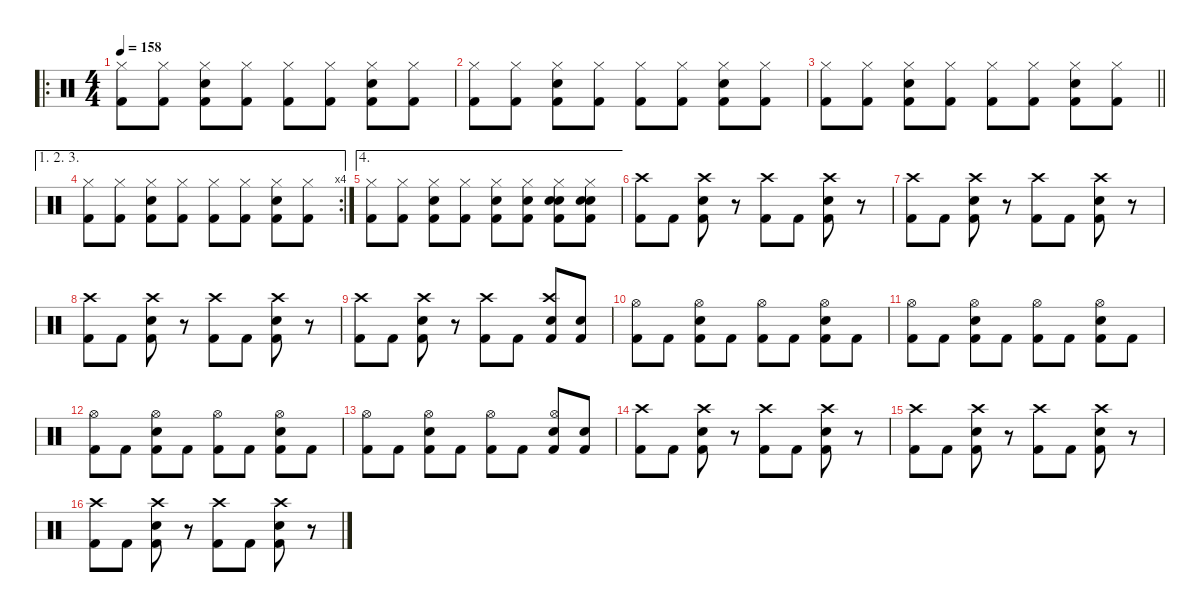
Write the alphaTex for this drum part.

\defaultSystemsLayout 4
\hideDynamics
\bracketExtendMode nobrackets
\singleTrackTrackNamePolicy hidden
\multiTrackTrackNamePolicy hidden
\firstSystemTrackNameMode fullname
\firstSystemTrackNameOrientation horizontal
\otherSystemsTrackNameOrientation horizontal
\track ("Drums" "drm.") {instrument percussion}
\staff {score}
\articulation defaults
\ro
\ts (4 4)
\tempo 158
\clef neutral
\ks c
("Hi-Hat (closed)" "Kick (hit) 2").8{dy f beam Down} ("Hi-Hat (closed)" "Kick (hit) 2").8{beam Down} ("Hi-Hat (closed)" "Snare (hit) 2" "Kick (hit) 2").8{beam Down} ("Hi-Hat (closed)" "Kick (hit) 2").8{beam Down} ("Hi-Hat (closed)" "Kick (hit) 2").8{beam Down} ("Hi-Hat (closed)" "Kick (hit) 2").8{beam Down} ("Hi-Hat (closed)" "Kick (hit) 2" "Snare (hit) 2").8{beam Down} ("Hi-Hat (closed)" "Kick (hit) 2").8{beam Down} |
("Hi-Hat (closed)" "Kick (hit) 2").8{beam Down} ("Hi-Hat (closed)" "Kick (hit) 2").8{beam Down} ("Hi-Hat (closed)" "Snare (hit) 2" "Kick (hit) 2").8{beam Down} ("Hi-Hat (closed)" "Kick (hit) 2").8{beam Down} ("Hi-Hat (closed)" "Kick (hit) 2").8{beam Down} ("Hi-Hat (closed)" "Kick (hit) 2").8{beam Down} ("Hi-Hat (closed)" "Kick (hit) 2" "Snare (hit) 2").8{beam Down} ("Hi-Hat (closed)" "Kick (hit) 2").8{beam Down} |
\barLineRight lightlight
("Hi-Hat (closed)" "Kick (hit) 2").8{beam Down} ("Hi-Hat (closed)" "Kick (hit) 2").8{beam Down} ("Hi-Hat (closed)" "Snare (hit) 2" "Kick (hit) 2").8{beam Down} ("Hi-Hat (closed)" "Kick (hit) 2").8{beam Down} ("Hi-Hat (closed)" "Kick (hit) 2").8{beam Down} ("Hi-Hat (closed)" "Kick (hit) 2").8{beam Down} ("Hi-Hat (closed)" "Kick (hit) 2" "Snare (hit) 2").8{beam Down} ("Hi-Hat (closed)" "Kick (hit) 2").8{beam Down} |
\ae (1 2 3)
\rc 4
("Hi-Hat (closed)" "Kick (hit) 2").8{beam Down} ("Hi-Hat (closed)" "Kick (hit) 2").8{beam Down} ("Hi-Hat (closed)" "Snare (hit) 2" "Kick (hit) 2").8{beam Down} ("Hi-Hat (closed)" "Kick (hit) 2").8{beam Down} ("Hi-Hat (closed)" "Kick (hit) 2").8{beam Down} ("Hi-Hat (closed)" "Kick (hit) 2").8{beam Down} ("Hi-Hat (closed)" "Kick (hit) 2" "Snare (hit) 2").8{beam Down} ("Hi-Hat (closed)" "Kick (hit) 2").8{beam Down} |
\ae 4
("Hi-Hat (closed)" "Kick (hit) 2").8{beam Down} ("Hi-Hat (closed)" "Kick (hit) 2").8{beam Down} ("Hi-Hat (closed)" "Snare (hit) 2" "Kick (hit) 2").8{beam Down} ("Hi-Hat (closed)" "Kick (hit) 2").8{beam Down} ("Hi-Hat (closed)" "Snare (hit) 2" "Kick (hit) 2").8{beam Down} ("Hi-Hat (closed)" "Snare (hit) 2" "Kick (hit) 2").8{beam Down} ("Hi-Hat (closed)" "Snare (hit) 2" "Kick (hit) 2" "Snare (hit) 2").8{beam Down} ("Hi-Hat (closed)" "Snare (hit) 2" "Snare (hit) 2" "Kick (hit) 2").8{beam Down} |
("Crash high (hit)" "Kick (hit) 2").8{beam Down} "Kick (hit) 2".8{beam Down} ("Crash high (hit)" "Snare (hit) 2" "Kick (hit) 2").8{beam Down} r.8{beam Down} ("Crash high (hit)" "Kick (hit) 2").8{beam Down} "Kick (hit) 2".8{beam Down} ("Crash high (hit)" "Snare (hit) 2" "Kick (hit) 2").8{beam Down} r.8{beam Down} |
("Crash high (hit)" "Kick (hit) 2").8{beam Down} "Kick (hit) 2".8{beam Down} ("Crash high (hit)" "Snare (hit) 2" "Kick (hit) 2").8{beam Down} r.8{beam Down} ("Crash high (hit)" "Kick (hit) 2").8{beam Down} "Kick (hit) 2".8{beam Down} ("Crash high (hit)" "Snare (hit) 2" "Kick (hit) 2").8{beam Down} r.8{beam Down} |
("Crash high (hit)" "Kick (hit) 2").8{beam Down} "Kick (hit) 2".8{beam Down} ("Crash high (hit)" "Snare (hit) 2" "Kick (hit) 2").8{beam Down} r.8{beam Down} ("Crash high (hit)" "Kick (hit) 2").8{beam Down} "Kick (hit) 2".8{beam Down} ("Crash high (hit)" "Snare (hit) 2" "Kick (hit) 2").8{beam Down} r.8{beam Down} |
("Crash high (hit)" "Kick (hit) 2").8{beam Down} "Kick (hit) 2".8{beam Down} ("Crash high (hit)" "Snare (hit) 2" "Kick (hit) 2").8{beam Down} r.8{beam Down} ("Crash high (hit)" "Kick (hit) 2").8{beam Down} "Kick (hit) 2".8{beam Down} ("Crash high (hit)" "Snare (hit) 2" "Kick (hit) 2").8{beam Up} ("Snare (hit) 2" "Kick (hit) 2").8{beam Up} |
("Hi-Hat (open)" "Kick (hit) 2").8{beam Down} "Kick (hit) 2".8{beam Down} ("Hi-Hat (open)" "Snare (hit) 2" "Kick (hit) 2").8{beam Down} "Kick (hit) 2".8{beam Down} ("Hi-Hat (open)" "Kick (hit) 2").8{beam Down} "Kick (hit) 2".8{beam Down} ("Hi-Hat (open)" "Kick (hit) 2" "Snare (hit) 2").8{beam Down} "Kick (hit) 2".8{beam Down} |
("Hi-Hat (open)" "Kick (hit) 2").8{beam Down} "Kick (hit) 2".8{beam Down} ("Hi-Hat (open)" "Snare (hit) 2" "Kick (hit) 2").8{beam Down} "Kick (hit) 2".8{beam Down} ("Hi-Hat (open)" "Kick (hit) 2").8{beam Down} "Kick (hit) 2".8{beam Down} ("Hi-Hat (open)" "Kick (hit) 2" "Snare (hit) 2").8{beam Down} "Kick (hit) 2".8{beam Down} |
("Hi-Hat (open)" "Kick (hit) 2").8{beam Down} "Kick (hit) 2".8{beam Down} ("Hi-Hat (open)" "Snare (hit) 2" "Kick (hit) 2").8{beam Down} "Kick (hit) 2".8{beam Down} ("Hi-Hat (open)" "Kick (hit) 2").8{beam Down} "Kick (hit) 2".8{beam Down} ("Hi-Hat (open)" "Kick (hit) 2" "Snare (hit) 2").8{beam Down} "Kick (hit) 2".8{beam Down} |
("Hi-Hat (open)" "Kick (hit) 2").8{beam Down} "Kick (hit) 2".8{beam Down} ("Hi-Hat (open)" "Snare (hit) 2" "Kick (hit) 2").8{beam Down} "Kick (hit) 2".8{beam Down} ("Hi-Hat (open)" "Kick (hit) 2").8{beam Down} "Kick (hit) 2".8{beam Down} ("Hi-Hat (open)" "Kick (hit) 2" "Snare (hit) 2").8{beam Up} ("Snare (hit) 2" "Kick (hit) 2").8{beam Up} |
("Crash high (hit)" "Kick (hit) 2").8{beam Down} "Kick (hit) 2".8{beam Down} ("Crash high (hit)" "Snare (hit) 2" "Kick (hit) 2").8{beam Down} r.8{beam Down} ("Crash high (hit)" "Kick (hit) 2").8{beam Down} "Kick (hit) 2".8{beam Down} ("Crash high (hit)" "Snare (hit) 2" "Kick (hit) 2").8{beam Down} r.8{beam Down} |
("Crash high (hit)" "Kick (hit) 2").8{beam Down} "Kick (hit) 2".8{beam Down} ("Crash high (hit)" "Snare (hit) 2" "Kick (hit) 2").8{beam Down} r.8{beam Down} ("Crash high (hit)" "Kick (hit) 2").8{beam Down} "Kick (hit) 2".8{beam Down} ("Crash high (hit)" "Snare (hit) 2" "Kick (hit) 2").8{beam Down} r.8{beam Down} |
("Crash high (hit)" "Kick (hit) 2").8{beam Down} "Kick (hit) 2".8{beam Down} ("Crash high (hit)" "Snare (hit) 2" "Kick (hit) 2").8{beam Down} r.8{beam Down} ("Crash high (hit)" "Kick (hit) 2").8{beam Down} "Kick (hit) 2".8{beam Down} ("Crash high (hit)" "Snare (hit) 2" "Kick (hit) 2").8{beam Down} r.8{beam Down}
